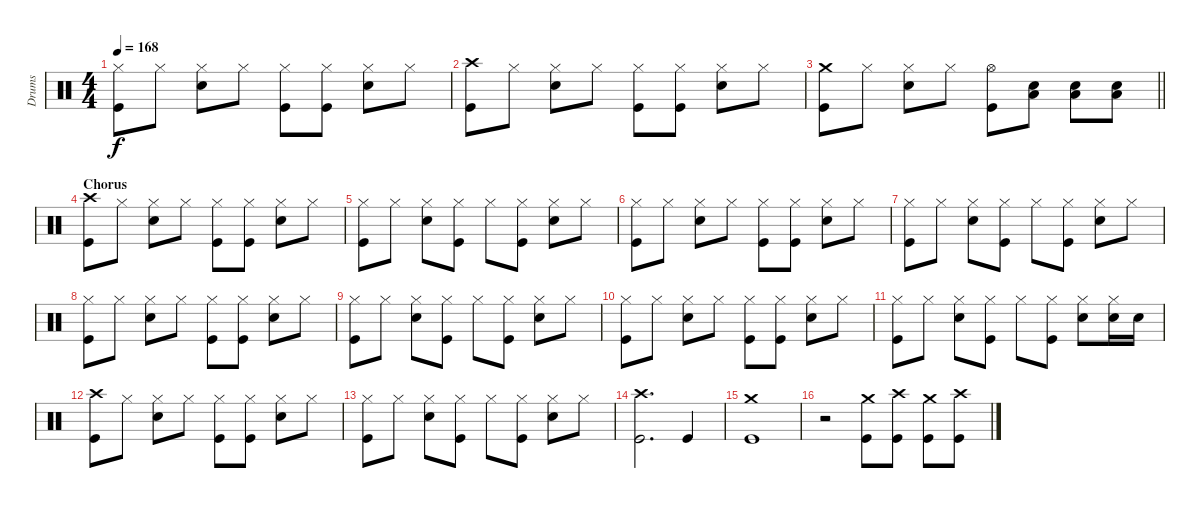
\track ("Drums" "Drums") {instrument percussion}
\staff {score}
\articulation defaults
\ts (4 4)
\tempo 168
\clef neutral
\ks c
("Hi-Hat (closed)" "Kick (hit)").8{dy f} "Hi-Hat (closed)".8 ("Hi-Hat (closed)" "Snare (hit) 2").8 "Hi-Hat (closed)".8 ("Hi-Hat (closed)" "Kick (hit)").8 ("Hi-Hat (closed)" "Kick (hit)").8 ("Hi-Hat (closed)" "Snare (hit) 2").8 "Hi-Hat (closed)".8 |
("Crash high (hit)" "Kick (hit)").8 "Hi-Hat (closed)".8 ("Hi-Hat (closed)" "Snare (hit) 2").8 "Hi-Hat (closed)".8 ("Hi-Hat (closed)" "Kick (hit)").8 ("Hi-Hat (closed)" "Kick (hit)").8 ("Hi-Hat (closed)" "Snare (hit) 2").8 "Hi-Hat (closed)".8 |
\barLineRight lightlight
("Crash medium (hit)" "Kick (hit)").8 "Hi-Hat (closed)".8 ("Hi-Hat (closed)" "Snare (hit) 2").8 "Hi-Hat (closed)".8 ("Hi-Hat (open)" "Kick (hit)").8 ("Low Floor Tom (hit)" "Snare (hit) 2").8 ("Low Floor Tom (hit)" "Snare (hit) 2").8 ("Low Floor Tom (hit)" "Snare (hit) 2").8 |
\section ("" "Chorus")
("Crash high (hit)" "Kick (hit)").8 "Hi-Hat (closed)".8 ("Hi-Hat (closed)" "Snare (hit) 2").8 "Hi-Hat (closed)".8 ("Hi-Hat (closed)" "Kick (hit)").8 ("Hi-Hat (closed)" "Kick (hit)").8 ("Hi-Hat (closed)" "Snare (hit) 2").8 "Hi-Hat (closed)".8 |
("Hi-Hat (closed)" "Kick (hit)").8 "Hi-Hat (closed)".8 ("Hi-Hat (closed)" "Snare (hit) 2").8 ("Hi-Hat (closed)" "Kick (hit)").8 "Hi-Hat (closed)".8 ("Hi-Hat (closed)" "Kick (hit)").8 ("Hi-Hat (closed)" "Snare (hit) 2").8 "Hi-Hat (closed)".8 |
("Hi-Hat (closed)" "Kick (hit)").8 "Hi-Hat (closed)".8 ("Hi-Hat (closed)" "Snare (hit) 2").8 "Hi-Hat (closed)".8 ("Hi-Hat (closed)" "Kick (hit)").8 ("Hi-Hat (closed)" "Kick (hit)").8 ("Hi-Hat (closed)" "Snare (hit) 2").8 "Hi-Hat (closed)".8 |
("Hi-Hat (closed)" "Kick (hit)").8 "Hi-Hat (closed)".8 ("Hi-Hat (closed)" "Snare (hit) 2").8 ("Hi-Hat (closed)" "Kick (hit)").8 "Hi-Hat (closed)".8 ("Hi-Hat (closed)" "Kick (hit)").8 ("Hi-Hat (closed)" "Snare (hit) 2").8 "Hi-Hat (closed)".8 |
("Hi-Hat (closed)" "Kick (hit)").8 "Hi-Hat (closed)".8 ("Hi-Hat (closed)" "Snare (hit) 2").8 "Hi-Hat (closed)".8 ("Hi-Hat (closed)" "Kick (hit)").8 ("Hi-Hat (closed)" "Kick (hit)").8 ("Hi-Hat (closed)" "Snare (hit) 2").8 "Hi-Hat (closed)".8 |
("Hi-Hat (closed)" "Kick (hit)").8 "Hi-Hat (closed)".8 ("Hi-Hat (closed)" "Snare (hit) 2").8 ("Hi-Hat (closed)" "Kick (hit)").8 "Hi-Hat (closed)".8 ("Hi-Hat (closed)" "Kick (hit)").8 ("Hi-Hat (closed)" "Snare (hit) 2").8 "Hi-Hat (closed)".8 |
("Hi-Hat (closed)" "Kick (hit)").8 "Hi-Hat (closed)".8 ("Hi-Hat (closed)" "Snare (hit) 2").8 "Hi-Hat (closed)".8 ("Hi-Hat (closed)" "Kick (hit)").8 ("Hi-Hat (closed)" "Kick (hit)").8 ("Hi-Hat (closed)" "Snare (hit) 2").8 "Hi-Hat (closed)".8 |
("Hi-Hat (closed)" "Kick (hit)").8 "Hi-Hat (closed)".8 ("Hi-Hat (closed)" "Snare (hit) 2").8 ("Hi-Hat (closed)" "Kick (hit)").8 "Hi-Hat (closed)".8 ("Hi-Hat (closed)" "Kick (hit)").8 ("Hi-Hat (closed)" "Snare (hit) 2").8 ("Hi-Hat (closed)" "Snare (hit) 2").16 "Snare (hit) 2".16 |
("Crash high (hit)" "Kick (hit)").8 "Hi-Hat (closed)".8 ("Hi-Hat (closed)" "Snare (hit) 2").8 "Hi-Hat (closed)".8 ("Hi-Hat (closed)" "Kick (hit)").8 ("Hi-Hat (closed)" "Kick (hit)").8 ("Hi-Hat (closed)" "Snare (hit) 2").8 "Hi-Hat (closed)".8 |
("Hi-Hat (closed)" "Kick (hit)").8 "Hi-Hat (closed)".8 ("Hi-Hat (closed)" "Snare (hit) 2").8 ("Hi-Hat (closed)" "Kick (hit)").8 "Hi-Hat (closed)".8 ("Hi-Hat (closed)" "Kick (hit)").8 ("Hi-Hat (closed)" "Snare (hit) 2").8 "Hi-Hat (closed)".8 |
("Crash high (hit)" "Kick (hit)").2{d} "Kick (hit)".4 |
("Crash medium (hit)" "Kick (hit)").1 |
r.2 ("Crash medium (hit)" "Kick (hit)").8 ("Crash high (hit)" "Kick (hit)").8 ("Crash medium (hit)" "Kick (hit)").8 ("Crash high (hit)" "Kick (hit)").8
